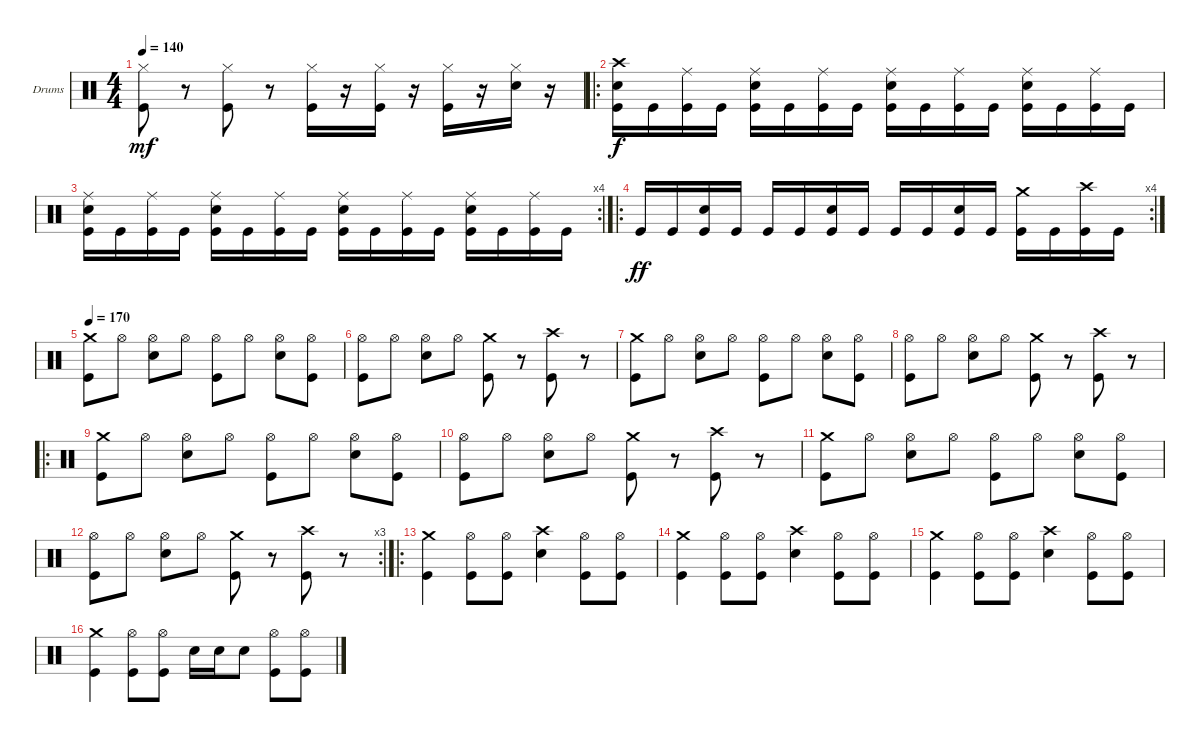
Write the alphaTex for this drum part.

\bracketExtendMode groupsimilarinstruments
\firstSystemTrackNameOrientation horizontal
\otherSystemsTrackNameOrientation horizontal
\track ("Drums" "Drums") {instrument percussion}
\staff {score}
\articulation defaults
\ts (4 4)
\tempo 140
\clef neutral
\ks c
("Kick (hit)" "Hi-Hat (closed)").8{dy mf} r.8 ("Kick (hit)" "Hi-Hat (closed)").8 r.8 ("Kick (hit)" "Hi-Hat (closed)").16 r.16 ("Kick (hit)" "Hi-Hat (closed)").16 r.16 ("Kick (hit)" "Hi-Hat (closed)").16 r.16 ("Hi-Hat (closed)" "Snare (hit) 2").16 r.16 |
\ro
("Snare (hit) 2" "Kick (hit)" "Crash high (hit)").16{dy f} "Kick (hit)".16 ("Ride (middle)" "Kick (hit)").16 "Kick (hit)".16 ("Ride (middle)" "Snare (hit) 2" "Kick (hit)").16 "Kick (hit)".16 ("Ride (middle)" "Kick (hit)").16 "Kick (hit)".16 ("Ride (middle)" "Snare (hit) 2" "Kick (hit)").16 "Kick (hit)".16 ("Ride (middle)" "Kick (hit)").16 "Kick (hit)".16 ("Ride (middle)" "Snare (hit) 2" "Kick (hit)").16 "Kick (hit)".16 ("Ride (middle)" "Kick (hit)").16 "Kick (hit)".16 |
\rc 4
("Ride (middle)" "Snare (hit) 2" "Kick (hit)").16 "Kick (hit)".16 ("Ride (middle)" "Kick (hit)").16 "Kick (hit)".16 ("Ride (middle)" "Snare (hit) 2" "Kick (hit)").16 "Kick (hit)".16 ("Ride (middle)" "Kick (hit)").16 "Kick (hit)".16 ("Ride (middle)" "Snare (hit) 2" "Kick (hit)").16 "Kick (hit)".16 ("Ride (middle)" "Kick (hit)").16 "Kick (hit)".16 ("Ride (middle)" "Snare (hit) 2" "Kick (hit)").16 "Kick (hit)".16 ("Ride (middle)" "Kick (hit)").16 "Kick (hit)".16 |
\ro
\rc 4 "Kick (hit)".16{dy ff} "Kick (hit)".16
("Kick (hit)" "Snare (hit) 2").16 "Kick (hit)".16 "Kick (hit)".16 "Kick (hit)".16 ("Kick (hit)" "Snare (hit) 2").16 "Kick (hit)".16 "Kick (hit)".16 "Kick (hit)".16 ("Kick (hit)" "Snare (hit) 2").16 "Kick (hit)".16 ("Kick (hit)" "Crash medium (hit)").16 "Kick (hit)".16 ("Kick (hit)" "Crash high (hit)").16 "Kick (hit)".16 |
\tempo 170
("Kick (hit)" "Crash medium (hit)").8 "Hi-Hat (open)".8 ("Snare (hit) 2" "Hi-Hat (open)").8 "Hi-Hat (open)".8 ("Kick (hit)" "Hi-Hat (open)").8 "Hi-Hat (open)".8 ("Snare (hit) 2" "Hi-Hat (open)").8 ("Kick (hit)" "Hi-Hat (open)").8 |
("Kick (hit)" "Hi-Hat (open)").8 "Hi-Hat (open)".8 ("Snare (hit) 2" "Hi-Hat (open)").8 "Hi-Hat (open)".8 ("Kick (hit)" "Crash medium (hit)").8 r.8 ("Crash high (hit)" "Kick (hit)").8 r.8 |
("Kick (hit)" "Crash medium (hit)").8 "Hi-Hat (open)".8 ("Snare (hit) 2" "Hi-Hat (open)").8 "Hi-Hat (open)".8 ("Kick (hit)" "Hi-Hat (open)").8 "Hi-Hat (open)".8 ("Snare (hit) 2" "Hi-Hat (open)").8 ("Kick (hit)" "Hi-Hat (open)").8 |
("Kick (hit)" "Hi-Hat (open)").8 "Hi-Hat (open)".8 ("Snare (hit) 2" "Hi-Hat (open)").8 "Hi-Hat (open)".8 ("Kick (hit)" "Crash medium (hit)").8 r.8 ("Crash high (hit)" "Kick (hit)").8 r.8 |
\ro
("Kick (hit)" "Crash medium (hit)").8 "Hi-Hat (open)".8 ("Snare (hit) 2" "Hi-Hat (open)").8 "Hi-Hat (open)".8 ("Kick (hit)" "Hi-Hat (open)").8 "Hi-Hat (open)".8 ("Snare (hit) 2" "Hi-Hat (open)").8 ("Kick (hit)" "Hi-Hat (open)").8 |
("Kick (hit)" "Hi-Hat (open)").8 "Hi-Hat (open)".8 ("Snare (hit) 2" "Hi-Hat (open)").8 "Hi-Hat (open)".8 ("Kick (hit)" "Crash medium (hit)").8 r.8 ("Crash high (hit)" "Kick (hit)").8 r.8 |
("Kick (hit)" "Crash medium (hit)").8 "Hi-Hat (open)".8 ("Snare (hit) 2" "Hi-Hat (open)").8 "Hi-Hat (open)".8 ("Kick (hit)" "Hi-Hat (open)").8 "Hi-Hat (open)".8 ("Snare (hit) 2" "Hi-Hat (open)").8 ("Kick (hit)" "Hi-Hat (open)").8 |
\rc 3
("Kick (hit)" "Hi-Hat (open)").8 "Hi-Hat (open)".8 ("Snare (hit) 2" "Hi-Hat (open)").8 "Hi-Hat (open)".8 ("Kick (hit)" "Crash medium (hit)").8 r.8 ("Crash high (hit)" "Kick (hit)").8 r.8 |
\ro
("Kick (hit)" "Crash medium (hit)").4 ("Kick (hit)" "Hi-Hat (open)").8 ("Kick (hit)" "Hi-Hat (open)").8 ("Snare (hit) 2" "Crash high (hit)").4 ("Kick (hit)" "Hi-Hat (open)").8 ("Kick (hit)" "Hi-Hat (open)").8 |
("Kick (hit)" "Crash medium (hit)").4 ("Kick (hit)" "Hi-Hat (open)").8 ("Kick (hit)" "Hi-Hat (open)").8 ("Snare (hit) 2" "Crash high (hit)").4 ("Kick (hit)" "Hi-Hat (open)").8 ("Kick (hit)" "Hi-Hat (open)").8 |
("Kick (hit)" "Crash medium (hit)").4 ("Kick (hit)" "Hi-Hat (open)").8 ("Kick (hit)" "Hi-Hat (open)").8 ("Snare (hit) 2" "Crash high (hit)").4 ("Kick (hit)" "Hi-Hat (open)").8 ("Kick (hit)" "Hi-Hat (open)").8 |
("Kick (hit)" "Crash medium (hit)").4 ("Kick (hit)" "Hi-Hat (open)").8 ("Kick (hit)" "Hi-Hat (open)").8 "Snare (hit) 2".16 "Snare (hit) 2".16 "Snare (hit) 2".8 ("Kick (hit)" "Hi-Hat (open)").8 ("Kick (hit)" "Hi-Hat (open)").8
